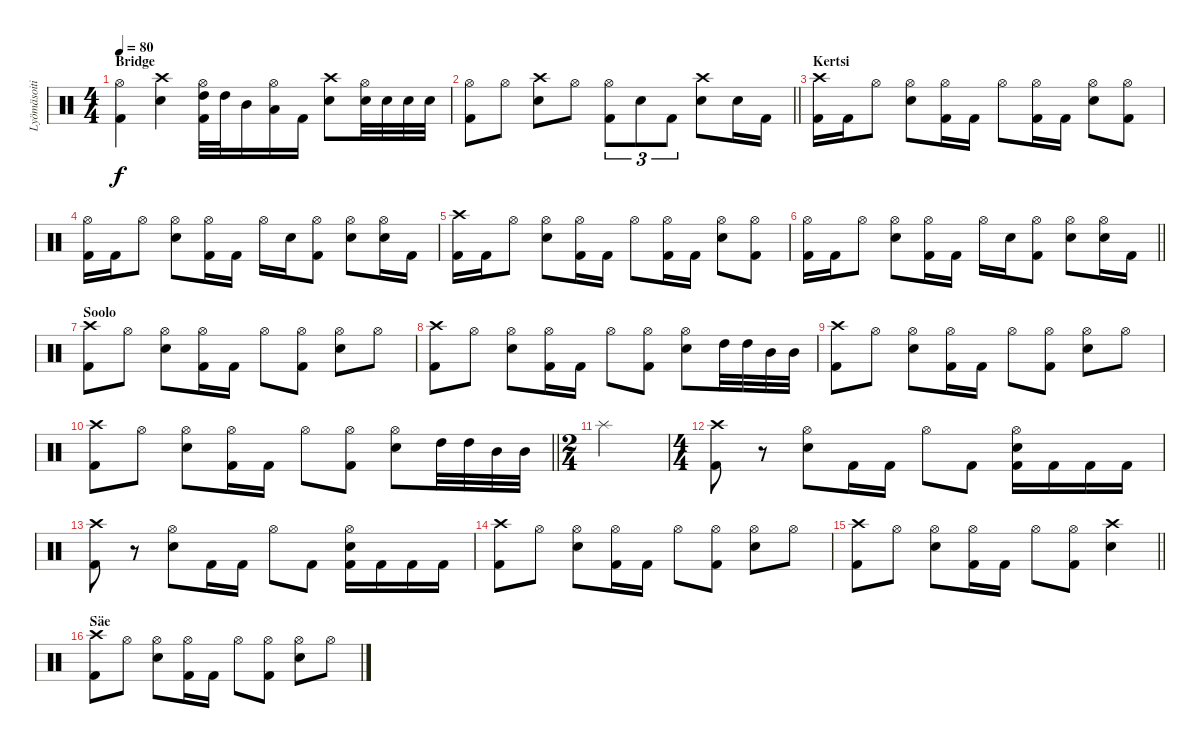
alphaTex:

\track ("Lyömäsoitin" "Lyömäsoiti") {instrument percussion}
\staff {score}
\articulation defaults
\ts (4 4)
\section ("" "Bridge ")
\tempo 80
\clef neutral
\ks c
("Hi-Hat (open)" "Kick (hit) 2").4{dy f} ("Crash high (hit)" "Snare (hit) 2").4 ("Hi-Hat (open)" "High Tom (hit)" "Kick (hit) 2").32 "High Tom (hit)".32 "Mid Tom (hit)".16 ("Hi-Hat (open)" "Low Tom (hit)").16 "Kick (hit) 2".16 ("Crash high (hit)" "Snare (hit) 2").8 ("Hi-Hat (open)" "Snare (hit) 2").32 "Snare (hit) 2".32 "Snare (hit) 2".32 "Snare (hit) 2".32 |
\barLineRight lightlight
("Hi-Hat (open)" "Kick (hit) 2").8 "Hi-Hat (open)".8 ("Crash high (hit)" "Snare (hit) 2").8 "Hi-Hat (open)".8 ("Hi-Hat (open)" "Kick (hit) 2").8{tu (3 2)} "Snare (hit) 2".8{tu (3 2)} "Kick (hit) 2".8{tu (3 2)} ("Crash high (hit)" "Snare (hit) 2").8 "Snare (hit) 2".16 "Kick (hit) 2".16 |
\section ("" "Kertsi")
("Crash high (hit)" "Kick (hit) 2").16 "Kick (hit) 2".16 "Hi-Hat (open)".8 ("Hi-Hat (open)" "Snare (hit) 2").8 ("Hi-Hat (open)" "Kick (hit) 2").16 "Kick (hit) 2".16 "Hi-Hat (open)".8 ("Hi-Hat (open)" "Kick (hit) 2").16 "Kick (hit) 2".16 ("Hi-Hat (open)" "Snare (hit) 2").8 ("Hi-Hat (open)" "Kick (hit) 2").8 |
("Hi-Hat (open)" "Kick (hit) 2").16 "Kick (hit) 2".16 "Hi-Hat (open)".8 ("Hi-Hat (open)" "Snare (hit) 2").8 ("Hi-Hat (open)" "Kick (hit) 2").16 "Kick (hit) 2".16 "Hi-Hat (open)".16 "Snare (hit) 2".16 ("Hi-Hat (open)" "Kick (hit) 2").8 ("Hi-Hat (open)" "Snare (hit) 2").8 ("Hi-Hat (open)" "Snare (hit) 2").16 "Kick (hit) 2".16 |
("Crash high (hit)" "Kick (hit) 2").16 "Kick (hit) 2".16 "Hi-Hat (open)".8 ("Hi-Hat (open)" "Snare (hit) 2").8 ("Hi-Hat (open)" "Kick (hit) 2").16 "Kick (hit) 2".16 "Hi-Hat (open)".8 ("Hi-Hat (open)" "Kick (hit) 2").16 "Kick (hit) 2".16 ("Hi-Hat (open)" "Snare (hit) 2").8 ("Hi-Hat (open)" "Kick (hit) 2").8 |
\barLineRight lightlight
("Hi-Hat (open)" "Kick (hit) 2").16 "Kick (hit) 2".16 "Hi-Hat (open)".8 ("Hi-Hat (open)" "Snare (hit) 2").8 ("Hi-Hat (open)" "Kick (hit) 2").16 "Kick (hit) 2".16 "Hi-Hat (open)".16 "Snare (hit) 2".16 ("Hi-Hat (open)" "Kick (hit) 2").8 ("Hi-Hat (open)" "Snare (hit) 2").8 ("Hi-Hat (open)" "Snare (hit) 2").16 "Kick (hit) 2".16 |
\section ("" "Soolo")
("Crash high (hit)" "Kick (hit) 2").8 "Hi-Hat (open)".8 ("Hi-Hat (open)" "Snare (hit) 2").8 ("Hi-Hat (open)" "Kick (hit) 2").16 "Kick (hit) 2".16 "Hi-Hat (open)".8 ("Hi-Hat (open)" "Kick (hit) 2").8 ("Hi-Hat (open)" "Snare (hit) 2").8 "Hi-Hat (open)".8 |
("Crash high (hit)" "Kick (hit) 2").8 "Hi-Hat (open)".8 ("Hi-Hat (open)" "Snare (hit) 2").8 ("Hi-Hat (open)" "Kick (hit) 2").16 "Kick (hit) 2".16 "Hi-Hat (open)".8 ("Hi-Hat (open)" "Kick (hit) 2").8 ("Hi-Hat (open)" "Snare (hit) 2").8 "High Tom (hit)".32 "High Tom (hit)".32 "Mid Tom (hit)".32 "Mid Tom (hit)".32 |
("Crash high (hit)" "Kick (hit) 2").8 "Hi-Hat (open)".8 ("Hi-Hat (open)" "Snare (hit) 2").8 ("Hi-Hat (open)" "Kick (hit) 2").16 "Kick (hit) 2".16 "Hi-Hat (open)".8 ("Hi-Hat (open)" "Kick (hit) 2").8 ("Hi-Hat (open)" "Snare (hit) 2").8 "Hi-Hat (open)".8 |
\barLineRight lightlight
("Crash high (hit)" "Kick (hit) 2").8 "Hi-Hat (open)".8 ("Hi-Hat (open)" "Snare (hit) 2").8 ("Hi-Hat (open)" "Kick (hit) 2").16 "Kick (hit) 2".16 "Hi-Hat (open)".8 ("Hi-Hat (open)" "Kick (hit) 2").8 ("Hi-Hat (open)" "Snare (hit) 2").8 "High Tom (hit)".32 "High Tom (hit)".32 "Mid Tom (hit)".32 "Mid Tom (hit)".32 |
\ts (2 4)
"Splash (hit)".2 |
\ts (4 4)
("Crash high (hit)" "Kick (hit) 2").8 r.8 ("Hi-Hat (open)" "Snare (hit) 2").8 "Kick (hit) 2".16 "Kick (hit) 2".16 "Hi-Hat (open)".8 "Kick (hit) 2".8 ("Hi-Hat (open)" "Snare (hit) 2" "Kick (hit) 2").16 "Kick (hit) 2".16 "Kick (hit) 2".16 "Kick (hit) 2".16 |
("Crash high (hit)" "Kick (hit) 2").8 r.8 ("Hi-Hat (open)" "Snare (hit) 2").8 "Kick (hit) 2".16 "Kick (hit) 2".16 "Hi-Hat (open)".8 "Kick (hit) 2".8 ("Hi-Hat (open)" "Snare (hit) 2" "Kick (hit) 2").16 "Kick (hit) 2".16 "Kick (hit) 2".16 "Kick (hit) 2".16 |
("Crash high (hit)" "Kick (hit) 2").8 "Hi-Hat (open)".8 ("Hi-Hat (open)" "Snare (hit) 2").8 ("Hi-Hat (open)" "Kick (hit) 2").16 "Kick (hit) 2".16 "Hi-Hat (open)".8 ("Hi-Hat (open)" "Kick (hit) 2").8 ("Hi-Hat (open)" "Snare (hit) 2").8 "Hi-Hat (open)".8 |
\barLineRight lightlight
("Crash high (hit)" "Kick (hit) 2").8 "Hi-Hat (open)".8 ("Hi-Hat (open)" "Snare (hit) 2").8 ("Hi-Hat (open)" "Kick (hit) 2").16 "Kick (hit) 2".16 "Hi-Hat (open)".8 ("Hi-Hat (open)" "Kick (hit) 2").8 ("Crash high (hit)" "Snare (hit) 2").4 |
\section ("" "Säe")
("Crash high (hit)" "Kick (hit) 2").8 "Hi-Hat (open)".8 ("Hi-Hat (open)" "Snare (hit) 2").8 ("Hi-Hat (open)" "Kick (hit) 2").16 "Kick (hit) 2".16 "Hi-Hat (open)".8 ("Hi-Hat (open)" "Kick (hit) 2").8 ("Hi-Hat (open)" "Snare (hit) 2").8 "Hi-Hat (open)".8
